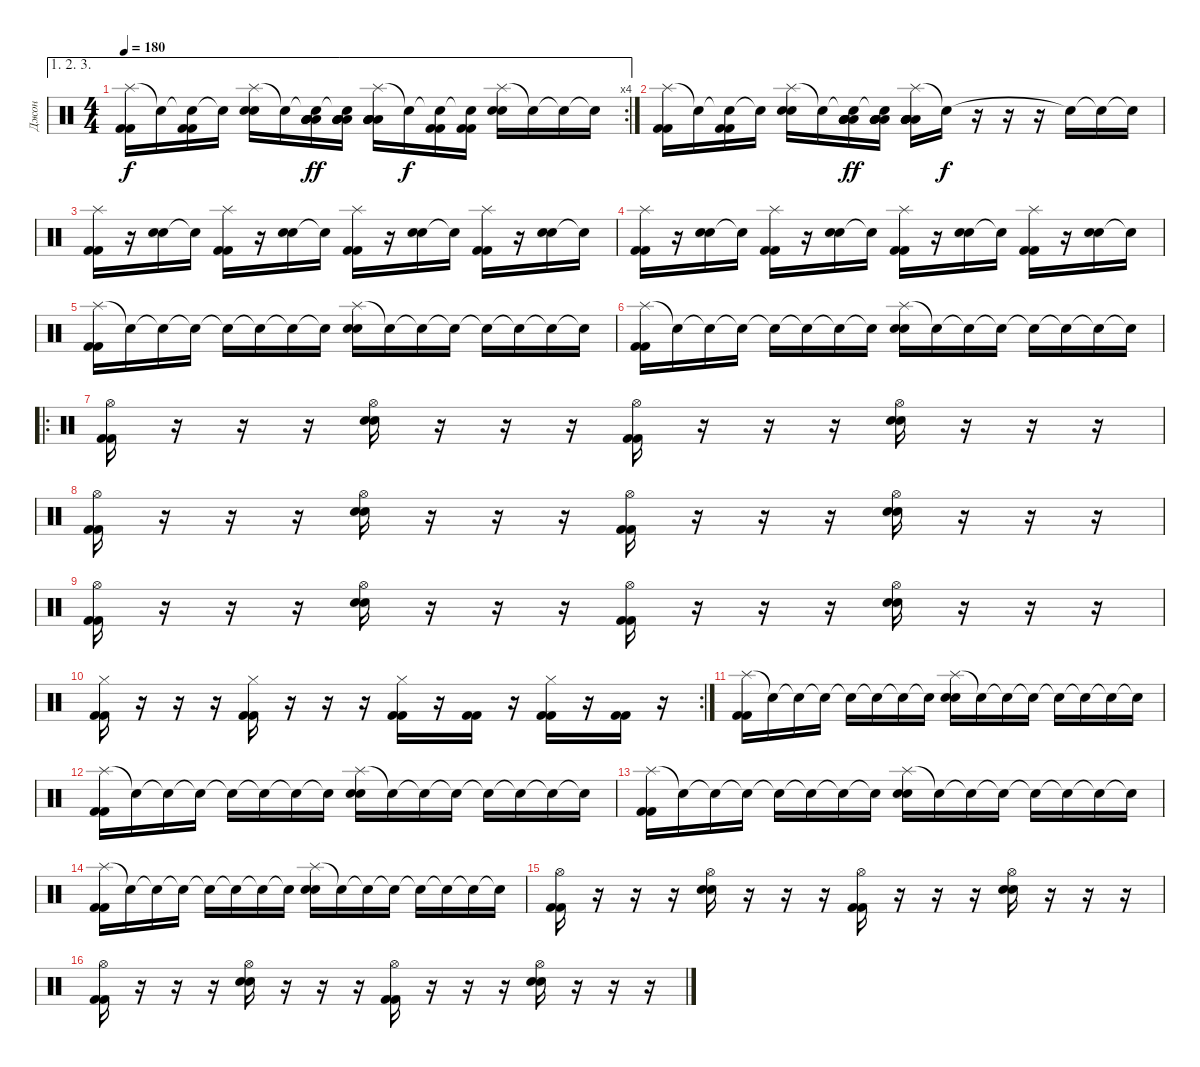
\track ("Джон" "Джон") {instrument percussion}
\staff {score}
\articulation defaults
\ae (1 2 3)
\rc 4
\ts (4 4)
\tempo 180
\clef neutral
\ks c
("Splash (hit)" "Kick (hit) 2" "Kick (hit) 2").16{dy f} "Snare (hit)"{t}.16 ("Snare (hit)"{t} "Kick (hit) 2" "Kick (hit) 2").16 "Snare (hit)"{t}.16 ("Splash (hit)" "Electric Snare (hit)" "Electric Snare (hit)").16 "Snare (hit)"{t}.16 ("Snare (hit)"{t} "Low Tom (hit)" "Low Tom (hit)" "Low Tom (hit)" "Low Tom (hit)" "Low Tom (hit)").16{dy ff} ("Snare (hit)"{t} "Low Tom (hit)" "Low Tom (hit)" "Low Tom (hit)" "Low Tom (hit)" "Low Tom (hit)").16 ("Splash (hit)" "Low Tom (hit)" "Low Tom (hit)" "Low Tom (hit)" "Low Tom (hit)" "Low Tom (hit)").16 "Snare (hit)"{t}.16{dy f} ("Snare (hit)"{t} "Kick (hit) 2" "Kick (hit) 2").16 ("Snare (hit)"{t} "Kick (hit) 2" "Kick (hit) 2").16 ("Splash (hit)" "Electric Snare (hit)" "Electric Snare (hit)").16 "Snare (hit)"{t}.16 "Snare (hit)"{t}.16 "Snare (hit)"{t}.16 |
("Splash (hit)" "Kick (hit) 2" "Kick (hit) 2").16 "Snare (hit)"{t}.16 ("Snare (hit)"{t} "Kick (hit) 2" "Kick (hit) 2").16 "Snare (hit)"{t}.16 ("Splash (hit)" "Electric Snare (hit)" "Electric Snare (hit)").16 "Snare (hit)"{t}.16 ("Snare (hit)"{t} "Low Tom (hit)" "Low Tom (hit)" "Low Tom (hit)" "Low Tom (hit)" "Low Tom (hit)").16{dy ff} ("Snare (hit)"{t} "Low Tom (hit)" "Low Tom (hit)" "Low Tom (hit)" "Low Tom (hit)" "Low Tom (hit)").16 ("Splash (hit)" "Low Tom (hit)" "Low Tom (hit)" "Low Tom (hit)" "Low Tom (hit)" "Low Tom (hit)").16 "Snare (hit)"{t}.16{dy f} r.16 r.16 r.16 "Snare (hit)"{t}.16 "Snare (hit)"{t}.16 "Snare (hit)"{t}.16 |
("Splash (hit)" "Kick (hit) 2" "Kick (hit) 2").16 r.16 ("Electric Snare (hit)" "Electric Snare (hit)").16 "Snare (hit)"{t}.16 ("Splash (hit)" "Kick (hit) 2" "Kick (hit) 2").16 r.16 ("Electric Snare (hit)" "Electric Snare (hit)").16 "Snare (hit)"{t}.16 ("Splash (hit)" "Kick (hit) 2" "Kick (hit) 2").16 r.16 ("Electric Snare (hit)" "Electric Snare (hit)").16 "Snare (hit)"{t}.16 ("Splash (hit)" "Kick (hit) 2" "Kick (hit) 2").16 r.16 ("Electric Snare (hit)" "Electric Snare (hit)").16 "Snare (hit)"{t}.16 |
("Splash (hit)" "Kick (hit) 2" "Kick (hit) 2").16 r.16 ("Electric Snare (hit)" "Electric Snare (hit)").16 "Snare (hit)"{t}.16 ("Splash (hit)" "Kick (hit) 2" "Kick (hit) 2").16 r.16 ("Electric Snare (hit)" "Electric Snare (hit)").16 "Snare (hit)"{t}.16 ("Splash (hit)" "Kick (hit) 2" "Kick (hit) 2").16 r.16 ("Electric Snare (hit)" "Electric Snare (hit)").16 "Snare (hit)"{t}.16 ("Splash (hit)" "Kick (hit) 2" "Kick (hit) 2").16 r.16 ("Electric Snare (hit)" "Electric Snare (hit)").16 "Snare (hit)"{t}.16 |
("Splash (hit)" "Kick (hit) 2" "Kick (hit) 2").16 "Snare (hit)"{t}.16 "Snare (hit)"{t}.16 "Snare (hit)"{t}.16 "Snare (hit)"{t}.16 "Snare (hit)"{t}.16 "Snare (hit)"{t}.16 "Snare (hit)"{t}.16 ("Splash (hit)" "Electric Snare (hit)" "Electric Snare (hit)").16 "Snare (hit)"{t}.16 "Snare (hit)"{t}.16 "Snare (hit)"{t}.16 "Snare (hit)"{t}.16 "Snare (hit)"{t}.16 "Snare (hit)"{t}.16 "Snare (hit)"{t}.16 |
("Splash (hit)" "Kick (hit) 2" "Kick (hit) 2").16 "Snare (hit)"{t}.16 "Snare (hit)"{t}.16 "Snare (hit)"{t}.16 "Snare (hit)"{t}.16 "Snare (hit)"{t}.16 "Snare (hit)"{t}.16 "Snare (hit)"{t}.16 ("Splash (hit)" "Electric Snare (hit)" "Electric Snare (hit)").16 "Snare (hit)"{t}.16 "Snare (hit)"{t}.16 "Snare (hit)"{t}.16 "Snare (hit)"{t}.16 "Snare (hit)"{t}.16 "Snare (hit)"{t}.16 "Snare (hit)"{t}.16 |
\ro
("Hi-Hat (open)" "Kick (hit) 2" "Kick (hit) 2").16 r.16 r.16 r.16 ("Hi-Hat (open)" "Electric Snare (hit)" "Electric Snare (hit)").16 r.16 r.16 r.16 ("Hi-Hat (open)" "Kick (hit) 2" "Kick (hit) 2").16 r.16 r.16 r.16 ("Hi-Hat (open)" "Electric Snare (hit)" "Electric Snare (hit)").16 r.16 r.16 r.16 |
("Hi-Hat (open)" "Kick (hit) 2" "Kick (hit) 2").16 r.16 r.16 r.16 ("Hi-Hat (open)" "Electric Snare (hit)" "Electric Snare (hit)").16 r.16 r.16 r.16 ("Hi-Hat (open)" "Kick (hit) 2" "Kick (hit) 2").16 r.16 r.16 r.16 ("Hi-Hat (open)" "Electric Snare (hit)" "Electric Snare (hit)").16 r.16 r.16 r.16 |
("Hi-Hat (open)" "Kick (hit) 2" "Kick (hit) 2").16 r.16 r.16 r.16 ("Hi-Hat (open)" "Electric Snare (hit)" "Electric Snare (hit)").16 r.16 r.16 r.16 ("Hi-Hat (open)" "Kick (hit) 2" "Kick (hit) 2").16 r.16 r.16 r.16 ("Hi-Hat (open)" "Electric Snare (hit)" "Electric Snare (hit)").16 r.16 r.16 r.16 |
\rc 2
("Hi-Hat (closed)" "Kick (hit) 2" "Kick (hit) 2").16 r.16 r.16 r.16 ("Hi-Hat (closed)" "Kick (hit) 2" "Kick (hit) 2").16 r.16 r.16 r.16 ("Hi-Hat (closed)" "Kick (hit) 2" "Kick (hit) 2").16 r.16 ("Kick (hit) 2" "Kick (hit) 2").16 r.16 ("Hi-Hat (closed)" "Kick (hit) 2" "Kick (hit) 2").16 r.16 ("Kick (hit) 2" "Kick (hit) 2").16 r.16 |
("Splash (hit)" "Kick (hit) 2" "Kick (hit) 2").16 "Snare (hit)"{t}.16 "Snare (hit)"{t}.16 "Snare (hit)"{t}.16 "Snare (hit)"{t}.16 "Snare (hit)"{t}.16 "Snare (hit)"{t}.16 "Snare (hit)"{t}.16 ("Splash (hit)" "Electric Snare (hit)" "Electric Snare (hit)").16 "Snare (hit)"{t}.16 "Snare (hit)"{t}.16 "Snare (hit)"{t}.16 "Snare (hit)"{t}.16 "Snare (hit)"{t}.16 "Snare (hit)"{t}.16 "Snare (hit)"{t}.16 |
("Splash (hit)" "Kick (hit) 2" "Kick (hit) 2").16 "Snare (hit)"{t}.16 "Snare (hit)"{t}.16 "Snare (hit)"{t}.16 "Snare (hit)"{t}.16 "Snare (hit)"{t}.16 "Snare (hit)"{t}.16 "Snare (hit)"{t}.16 ("Splash (hit)" "Electric Snare (hit)" "Electric Snare (hit)").16 "Snare (hit)"{t}.16 "Snare (hit)"{t}.16 "Snare (hit)"{t}.16 "Snare (hit)"{t}.16 "Snare (hit)"{t}.16 "Snare (hit)"{t}.16 "Snare (hit)"{t}.16 |
("Splash (hit)" "Kick (hit) 2" "Kick (hit) 2").16 "Snare (hit)"{t}.16 "Snare (hit)"{t}.16 "Snare (hit)"{t}.16 "Snare (hit)"{t}.16 "Snare (hit)"{t}.16 "Snare (hit)"{t}.16 "Snare (hit)"{t}.16 ("Splash (hit)" "Electric Snare (hit)" "Electric Snare (hit)").16 "Snare (hit)"{t}.16 "Snare (hit)"{t}.16 "Snare (hit)"{t}.16 "Snare (hit)"{t}.16 "Snare (hit)"{t}.16 "Snare (hit)"{t}.16 "Snare (hit)"{t}.16 |
("Splash (hit)" "Kick (hit) 2" "Kick (hit) 2").16 "Snare (hit)"{t}.16 "Snare (hit)"{t}.16 "Snare (hit)"{t}.16 "Snare (hit)"{t}.16 "Snare (hit)"{t}.16 "Snare (hit)"{t}.16 "Snare (hit)"{t}.16 ("Splash (hit)" "Electric Snare (hit)" "Electric Snare (hit)").16 "Snare (hit)"{t}.16 "Snare (hit)"{t}.16 "Snare (hit)"{t}.16 "Snare (hit)"{t}.16 "Snare (hit)"{t}.16 "Snare (hit)"{t}.16 "Snare (hit)"{t}.16 |
("Hi-Hat (open)" "Kick (hit) 2" "Kick (hit) 2").16 r.16 r.16 r.16 ("Hi-Hat (open)" "Electric Snare (hit)" "Electric Snare (hit)").16 r.16 r.16 r.16 ("Hi-Hat (open)" "Kick (hit) 2" "Kick (hit) 2").16 r.16 r.16 r.16 ("Hi-Hat (open)" "Electric Snare (hit)" "Electric Snare (hit)").16 r.16 r.16 r.16 |
("Hi-Hat (open)" "Kick (hit) 2" "Kick (hit) 2").16 r.16 r.16 r.16 ("Hi-Hat (open)" "Electric Snare (hit)" "Electric Snare (hit)").16 r.16 r.16 r.16 ("Hi-Hat (open)" "Kick (hit) 2" "Kick (hit) 2").16 r.16 r.16 r.16 ("Hi-Hat (open)" "Electric Snare (hit)" "Electric Snare (hit)").16 r.16 r.16 r.16
